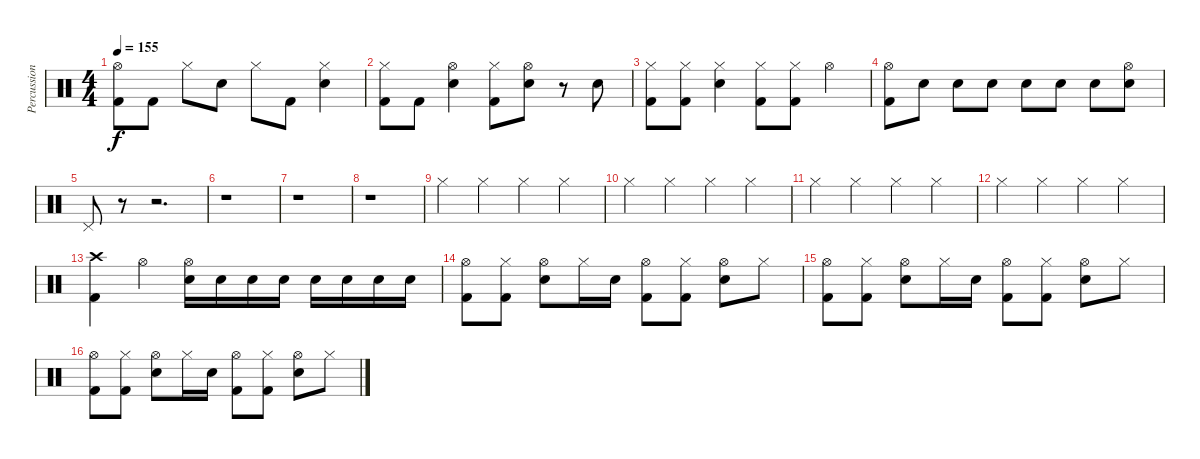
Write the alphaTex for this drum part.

\track ("Percussion" "Percussion") {instrument percussion}
\staff {score}
\articulation defaults
\ts (4 4)
\tempo 155
\clef neutral
\ks c
("Hi-Hat (open)" "Kick (hit) 2").8{dy f} "Kick (hit) 2".8 "Hi-Hat (closed)".8 "Snare (hit) 2".8 "Hi-Hat (closed)".8 "Kick (hit) 2".8 ("Hi-Hat (closed)" "Snare (hit) 2").4 |
("Hi-Hat (closed)" "Kick (hit) 2").8 "Kick (hit) 2".8 ("Hi-Hat (open)" "Snare (hit) 2").4 ("Hi-Hat (closed)" "Kick (hit) 2").8 ("Hi-Hat (open)" "Snare (hit) 2").8 r.8 "Snare (hit) 2".8 |
("Hi-Hat (closed)" "Kick (hit) 2").8 ("Hi-Hat (closed)" "Kick (hit) 2").8 ("Hi-Hat (closed)" "Snare (hit) 2").4 ("Hi-Hat (closed)" "Kick (hit) 2").8 ("Hi-Hat (closed)" "Kick (hit) 2").8 "Hi-Hat (open)".4 |
("Hi-Hat (open)" "Kick (hit) 2").8 "Snare (hit) 2".8 "Snare (hit) 2".8 "Snare (hit) 2".8 "Snare (hit) 2".8 "Snare (hit) 2".8 "Snare (hit) 2".8 ("Hi-Hat (open)" "Snare (hit) 2").8 |
"Pedal Hi-Hat (hit)".8 r.8 r.2{d} |
r.1 |
r.1 |
r.1 |
"Hi-Hat (closed)".4 "Hi-Hat (closed)".4 "Hi-Hat (closed)".4 "Hi-Hat (closed)".4 |
"Hi-Hat (closed)".4 "Hi-Hat (closed)".4 "Hi-Hat (closed)".4 "Hi-Hat (closed)".4 |
"Hi-Hat (closed)".4 "Hi-Hat (closed)".4 "Hi-Hat (closed)".4 "Hi-Hat (closed)".4 |
"Hi-Hat (closed)".4 "Hi-Hat (closed)".4 "Hi-Hat (closed)".4 "Hi-Hat (closed)".4 |
("Crash high (hit)" "Kick (hit) 2").4 "Hi-Hat (open)".4 ("Hi-Hat (open)" "Snare (hit) 2").16 "Snare (hit) 2".16 "Snare (hit) 2".16 "Snare (hit) 2".16 "Snare (hit) 2".16 "Snare (hit) 2".16 "Snare (hit) 2".16 "Snare (hit) 2".16 |
("Hi-Hat (open)" "Kick (hit) 2").8 ("Hi-Hat (closed)" "Kick (hit) 2").8 ("Hi-Hat (open)" "Snare (hit) 2").8 "Hi-Hat (closed)".16 "Snare (hit) 2".16 ("Hi-Hat (open)" "Kick (hit) 2").8 ("Hi-Hat (closed)" "Kick (hit) 2").8 ("Hi-Hat (open)" "Snare (hit) 2").8 "Hi-Hat (closed)".8 |
("Hi-Hat (open)" "Kick (hit) 2").8 ("Hi-Hat (closed)" "Kick (hit) 2").8 ("Hi-Hat (open)" "Snare (hit) 2").8 "Hi-Hat (closed)".16 "Snare (hit) 2".16 ("Hi-Hat (open)" "Kick (hit) 2").8 ("Hi-Hat (closed)" "Kick (hit) 2").8 ("Hi-Hat (open)" "Snare (hit) 2").8 "Hi-Hat (closed)".8 |
("Hi-Hat (open)" "Kick (hit) 2").8 ("Hi-Hat (closed)" "Kick (hit) 2").8 ("Hi-Hat (open)" "Snare (hit) 2").8 "Hi-Hat (closed)".16 "Snare (hit) 2".16 ("Hi-Hat (open)" "Kick (hit) 2").8 ("Hi-Hat (closed)" "Kick (hit) 2").8 ("Hi-Hat (open)" "Snare (hit) 2").8 "Hi-Hat (closed)".8
